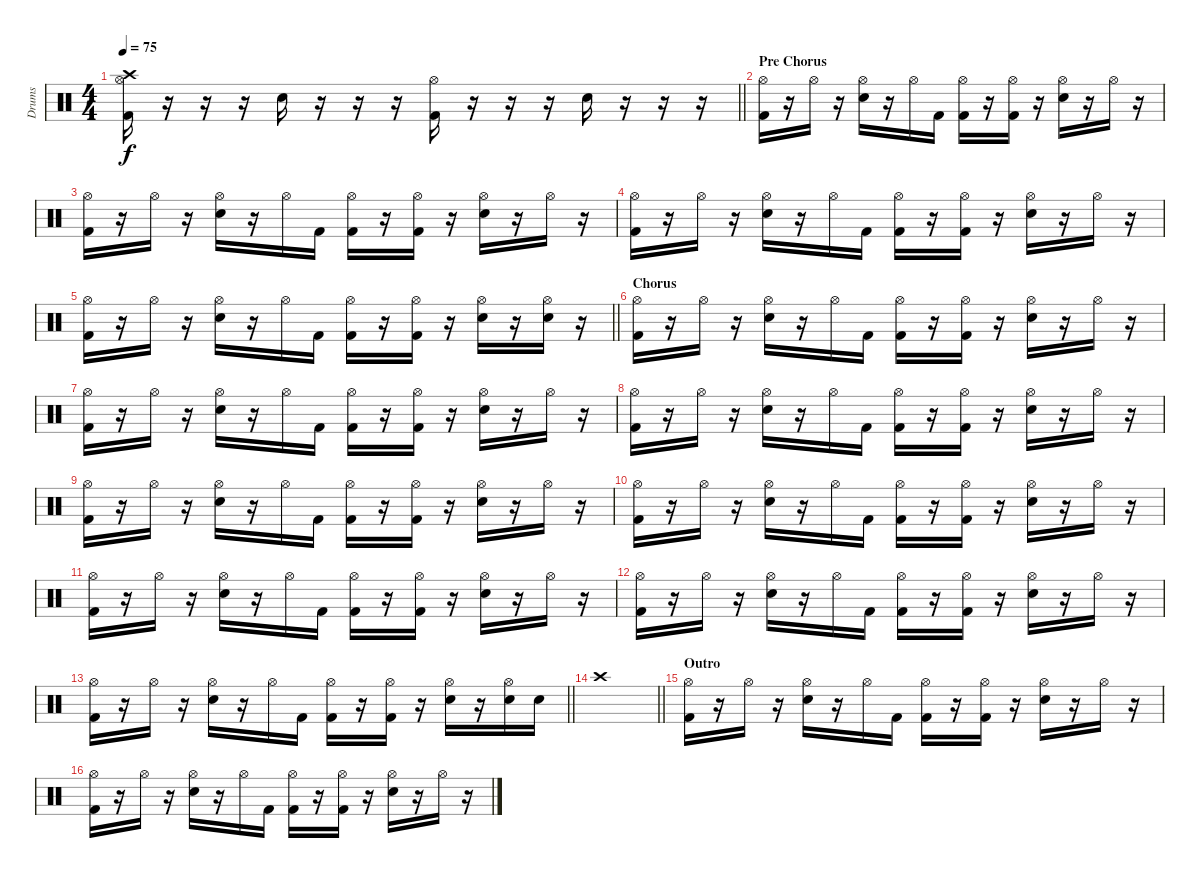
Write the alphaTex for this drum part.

\track ("Drums" "Drums") {instrument percussion}
\staff {score}
\articulation defaults
\ts (4 4)
\tempo 75
\clef neutral
\barLineRight lightlight
\ks c
("Hi-Hat (open)" "Crash high (hit)" "Kick (hit) 2").16{dy f} r.16 r.16 r.16 "Electric Snare (hit)".16 r.16 r.16 r.16 ("Hi-Hat (open)" "Kick (hit) 2").16 r.16 r.16 r.16 "Electric Snare (hit)".16 r.16 r.16 r.16 |
\section ("" "Pre Chorus")
("Hi-Hat (open)" "Kick (hit) 2").16 r.16 "Hi-Hat (open)".16 r.16 ("Hi-Hat (open)" "Electric Snare (hit)").16 r.16 "Hi-Hat (open)".16 "Kick (hit) 2".16 ("Hi-Hat (open)" "Kick (hit) 2").16 r.16 ("Hi-Hat (open)" "Kick (hit) 2").16 r.16 ("Hi-Hat (open)" "Electric Snare (hit)").16 r.16 "Hi-Hat (open)".16 r.16 |
("Hi-Hat (open)" "Kick (hit) 2").16 r.16 "Hi-Hat (open)".16 r.16 ("Hi-Hat (open)" "Electric Snare (hit)").16 r.16 "Hi-Hat (open)".16 "Kick (hit) 2".16 ("Hi-Hat (open)" "Kick (hit) 2").16 r.16 ("Hi-Hat (open)" "Kick (hit) 2").16 r.16 ("Hi-Hat (open)" "Electric Snare (hit)").16 r.16 "Hi-Hat (open)".16 r.16 |
("Hi-Hat (open)" "Kick (hit) 2").16 r.16 "Hi-Hat (open)".16 r.16 ("Hi-Hat (open)" "Electric Snare (hit)").16 r.16 "Hi-Hat (open)".16 "Kick (hit) 2".16 ("Hi-Hat (open)" "Kick (hit) 2").16 r.16 ("Hi-Hat (open)" "Kick (hit) 2").16 r.16 ("Hi-Hat (open)" "Electric Snare (hit)").16 r.16 "Hi-Hat (open)".16 r.16 |
\barLineRight lightlight
("Hi-Hat (open)" "Kick (hit) 2").16 r.16 "Hi-Hat (open)".16 r.16 ("Hi-Hat (open)" "Electric Snare (hit)").16 r.16 "Hi-Hat (open)".16 "Kick (hit) 2".16 ("Hi-Hat (open)" "Kick (hit) 2").16 r.16 ("Hi-Hat (open)" "Kick (hit) 2").16 r.16 ("Hi-Hat (open)" "Electric Snare (hit)").16 r.16 ("Hi-Hat (open)" "Electric Snare (hit)").16 r.16 |
\section ("" "Chorus")
("Hi-Hat (open)" "Kick (hit) 2").16 r.16 "Hi-Hat (open)".16 r.16 ("Hi-Hat (open)" "Electric Snare (hit)").16 r.16 "Hi-Hat (open)".16 "Kick (hit) 2".16 ("Hi-Hat (open)" "Kick (hit) 2").16 r.16 ("Hi-Hat (open)" "Kick (hit) 2").16 r.16 ("Hi-Hat (open)" "Electric Snare (hit)").16 r.16 "Hi-Hat (open)".16 r.16 |
("Hi-Hat (open)" "Kick (hit) 2").16 r.16 "Hi-Hat (open)".16 r.16 ("Hi-Hat (open)" "Electric Snare (hit)").16 r.16 "Hi-Hat (open)".16 "Kick (hit) 2".16 ("Hi-Hat (open)" "Kick (hit) 2").16 r.16 ("Hi-Hat (open)" "Kick (hit) 2").16 r.16 ("Hi-Hat (open)" "Electric Snare (hit)").16 r.16 "Hi-Hat (open)".16 r.16 |
("Hi-Hat (open)" "Kick (hit) 2").16 r.16 "Hi-Hat (open)".16 r.16 ("Hi-Hat (open)" "Electric Snare (hit)").16 r.16 "Hi-Hat (open)".16 "Kick (hit) 2".16 ("Hi-Hat (open)" "Kick (hit) 2").16 r.16 ("Hi-Hat (open)" "Kick (hit) 2").16 r.16 ("Hi-Hat (open)" "Electric Snare (hit)").16 r.16 "Hi-Hat (open)".16 r.16 |
("Hi-Hat (open)" "Kick (hit) 2").16 r.16 "Hi-Hat (open)".16 r.16 ("Hi-Hat (open)" "Electric Snare (hit)").16 r.16 "Hi-Hat (open)".16 "Kick (hit) 2".16 ("Hi-Hat (open)" "Kick (hit) 2").16 r.16 ("Hi-Hat (open)" "Kick (hit) 2").16 r.16 ("Hi-Hat (open)" "Electric Snare (hit)").16 r.16 "Hi-Hat (open)".16 r.16 |
("Hi-Hat (open)" "Kick (hit) 2").16 r.16 "Hi-Hat (open)".16 r.16 ("Hi-Hat (open)" "Electric Snare (hit)").16 r.16 "Hi-Hat (open)".16 "Kick (hit) 2".16 ("Hi-Hat (open)" "Kick (hit) 2").16 r.16 ("Hi-Hat (open)" "Kick (hit) 2").16 r.16 ("Hi-Hat (open)" "Electric Snare (hit)").16 r.16 "Hi-Hat (open)".16 r.16 |
("Hi-Hat (open)" "Kick (hit) 2").16 r.16 "Hi-Hat (open)".16 r.16 ("Hi-Hat (open)" "Electric Snare (hit)").16 r.16 "Hi-Hat (open)".16 "Kick (hit) 2".16 ("Hi-Hat (open)" "Kick (hit) 2").16 r.16 ("Hi-Hat (open)" "Kick (hit) 2").16 r.16 ("Hi-Hat (open)" "Electric Snare (hit)").16 r.16 "Hi-Hat (open)".16 r.16 |
("Hi-Hat (open)" "Kick (hit) 2").16 r.16 "Hi-Hat (open)".16 r.16 ("Hi-Hat (open)" "Electric Snare (hit)").16 r.16 "Hi-Hat (open)".16 "Kick (hit) 2".16 ("Hi-Hat (open)" "Kick (hit) 2").16 r.16 ("Hi-Hat (open)" "Kick (hit) 2").16 r.16 ("Hi-Hat (open)" "Electric Snare (hit)").16 r.16 "Hi-Hat (open)".16 r.16 |
\barLineRight lightlight
("Hi-Hat (open)" "Kick (hit) 2").16 r.16 "Hi-Hat (open)".16 r.16 ("Hi-Hat (open)" "Electric Snare (hit)").16 r.16 "Hi-Hat (open)".16 "Kick (hit) 2".16 ("Hi-Hat (open)" "Kick (hit) 2").16 r.16 ("Hi-Hat (open)" "Kick (hit) 2").16 r.16 ("Hi-Hat (open)" "Electric Snare (hit)").16 r.16 ("Hi-Hat (open)" "Electric Snare (hit)").16 "Electric Snare (hit)".16 |
\barLineRight lightlight "Crash high (hit)".1
|
\section ("" "Outro")
("Hi-Hat (open)" "Kick (hit) 2").16 r.16 "Hi-Hat (open)".16 r.16 ("Hi-Hat (open)" "Electric Snare (hit)").16 r.16 "Hi-Hat (open)".16 "Kick (hit) 2".16 ("Hi-Hat (open)" "Kick (hit) 2").16 r.16 ("Hi-Hat (open)" "Kick (hit) 2").16 r.16 ("Hi-Hat (open)" "Electric Snare (hit)").16 r.16 "Hi-Hat (open)".16 r.16 |
("Hi-Hat (open)" "Kick (hit) 2").16 r.16 "Hi-Hat (open)".16 r.16 ("Hi-Hat (open)" "Electric Snare (hit)").16 r.16 "Hi-Hat (open)".16 "Kick (hit) 2".16 ("Hi-Hat (open)" "Kick (hit) 2").16 r.16 ("Hi-Hat (open)" "Kick (hit) 2").16 r.16 ("Hi-Hat (open)" "Electric Snare (hit)").16 r.16 "Hi-Hat (open)".16 r.16
